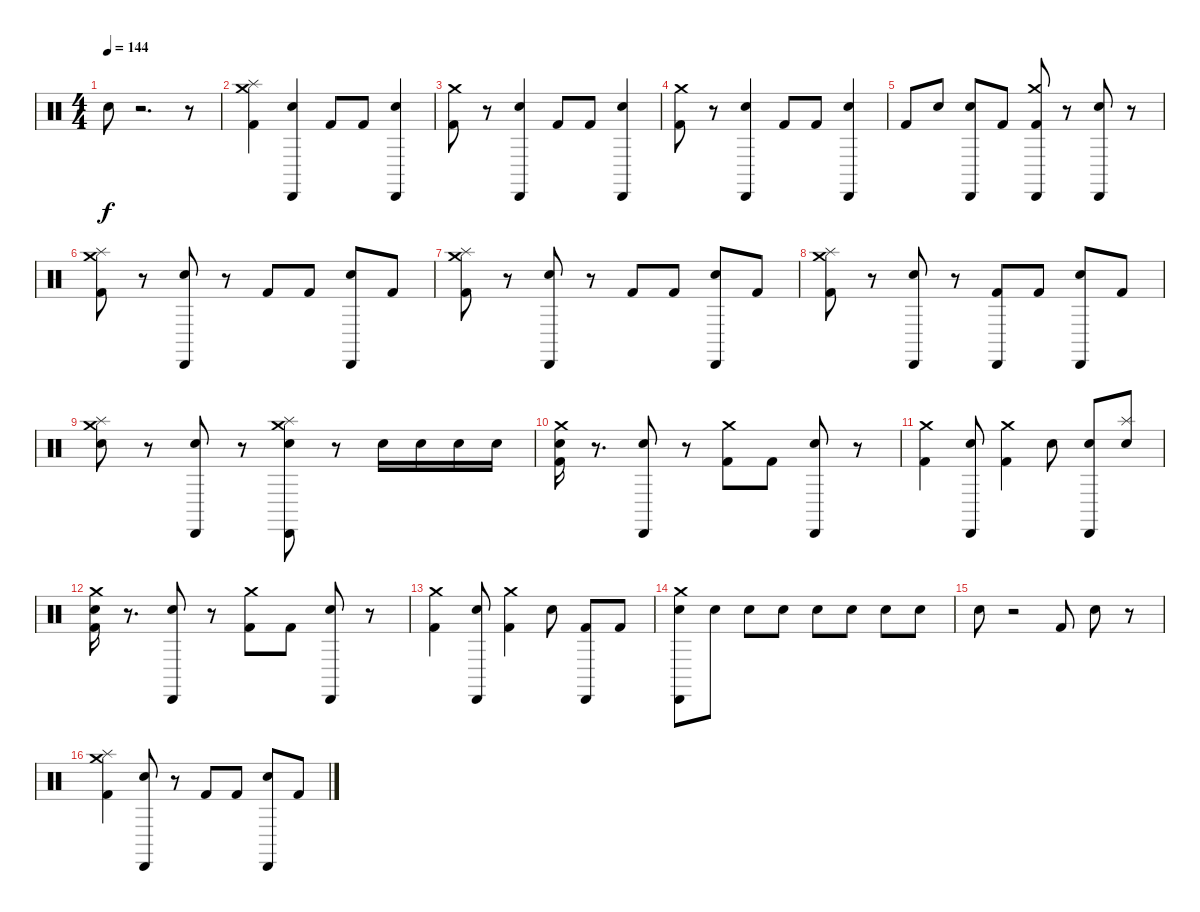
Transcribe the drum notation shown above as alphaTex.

\track "" {instrument percussion}
\staff {score}
\articulation defaults
\ts (4 4)
\tempo 144
\clef neutral
\ks c "Electric Snare (hit)".8{dy f}
r.2{d} r.8 |
("Splash (hit)" "Crash medium (hit)" "Kick (hit) 2").4 ("Cabasa (hit)" "Snare (hit) 2").4 "Kick (hit) 2".8 "Kick (hit) 2".8 ("Cabasa (hit)" "Snare (hit) 2").4 |
("Crash medium (hit)" "Kick (hit) 2").8 r.8 ("Cabasa (hit)" "Snare (hit) 2").4 "Kick (hit) 2".8 "Kick (hit) 2".8 ("Cabasa (hit)" "Snare (hit) 2").4 |
("Crash medium (hit)" "Kick (hit) 2").8 r.8 ("Cabasa (hit)" "Snare (hit) 2").4 "Kick (hit) 2".8 "Kick (hit) 2".8 ("Cabasa (hit)" "Snare (hit) 2").4 |
"Kick (hit) 2".8 "Snare (hit) 2".8 ("Cabasa (hit)" "Snare (hit) 2").8 "Kick (hit) 2".8 ("Cabasa (hit)" "Crash medium (hit)" "Kick (hit) 2").8 r.8 ("Cabasa (hit)" "Snare (hit) 2").8 r.8 |
("Splash (hit)" "Crash medium (hit)" "Kick (hit) 2").8 r.8 ("Cabasa (hit)" "Snare (hit) 2").8 r.8 "Kick (hit) 2".8 "Kick (hit) 2".8 ("Cabasa (hit)" "Snare (hit) 2").8 "Kick (hit) 2".8 |
("Crash medium (hit)" "Splash (hit)" "Kick (hit) 2").8 r.8 ("Cabasa (hit)" "Snare (hit) 2").8 r.8 "Kick (hit) 2".8 "Kick (hit) 2".8 ("Cabasa (hit)" "Snare (hit) 2").8 "Kick (hit) 2".8 |
("Crash medium (hit)" "Splash (hit)" "Kick (hit) 2").8 r.8 ("Cabasa (hit)" "Snare (hit) 2").8 r.8 ("Cabasa (hit)" "Kick (hit) 2").8 "Kick (hit) 2".8 ("Cabasa (hit)" "Snare (hit) 2").8 "Kick (hit) 2".8 |
("Crash medium (hit)" "Splash (hit)" "Snare (hit) 2").8 r.8 ("Cabasa (hit)" "Snare (hit) 2").8 r.8 ("Cabasa (hit)" "Crash medium (hit)" "Splash (hit)" "Snare (hit) 2").8 r.8 "Snare (hit) 2".16 "Snare (hit) 2".16 "Snare (hit) 2".16 "Snare (hit) 2".16 |
("Crash medium (hit)" "Kick (hit) 2" "Snare (hit) 2").16 r.8{d} ("Cabasa (hit)" "Snare (hit) 2").8 r.8 ("Crash medium (hit)" "Kick (hit) 2").8 "Kick (hit) 2".8 ("Cabasa (hit)" "Snare (hit) 2").8 r.8 |
("Crash medium (hit)" "Kick (hit) 2").4 ("Cabasa (hit)" "Snare (hit) 2").8 ("Crash medium (hit)" "Kick (hit) 2").4 "Snare (hit) 2".8 ("Cabasa (hit)" "Snare (hit) 2").8 ("Splash (hit)" "Snare (hit) 2").8 |
("Crash medium (hit)" "Kick (hit) 2" "Snare (hit) 2").16 r.8{d} ("Cabasa (hit)" "Snare (hit) 2").8 r.8 ("Crash medium (hit)" "Kick (hit) 2").8 "Kick (hit) 2".8 ("Cabasa (hit)" "Snare (hit) 2").8 r.8 |
("Crash medium (hit)" "Kick (hit) 2").4 ("Cabasa (hit)" "Snare (hit) 2").8 ("Crash medium (hit)" "Kick (hit) 2").4 "Snare (hit) 2".8 ("Cabasa (hit)" "Kick (hit) 2").8 "Kick (hit) 2".8 |
("Crash medium (hit)" "Snare (hit) 2" "Cabasa (hit)").8 "Snare (hit) 2".8 "Snare (hit) 2".8 "Snare (hit) 2".8 "Snare (hit) 2".8 "Snare (hit) 2".8 "Snare (hit) 2".8 "Snare (hit) 2".8 |
"Snare (hit) 2".8 r.2 "Kick (hit) 2".8 "Electric Snare (hit)".8 r.8 |
("Splash (hit)" "Crash medium (hit)" "Kick (hit) 2").4 ("Cabasa (hit)" "Snare (hit) 2").8 r.8 "Kick (hit) 2".8 "Kick (hit) 2".8 ("Cabasa (hit)" "Snare (hit) 2").8 "Kick (hit) 2".8
